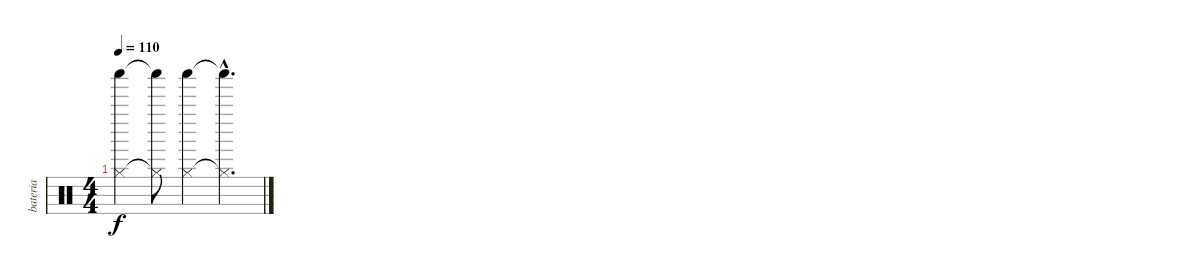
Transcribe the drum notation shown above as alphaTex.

\track ("bateria" "bateria") {instrument percussion}
\staff {score}
\articulation defaults
\ts (4 4)
\tempo 110
\clef neutral
\ks c
("Shaker (hit)" "Hi-Hat (closed)").4{dy f} ("Shaker (hit)"{t} "Hi-Hat (closed)"{t}).8 ("Shaker (hit)" "Hi-Hat (closed)").4 ("Shaker (hit)"{hac t} "Hi-Hat (closed)"{hac t}).4{d}
